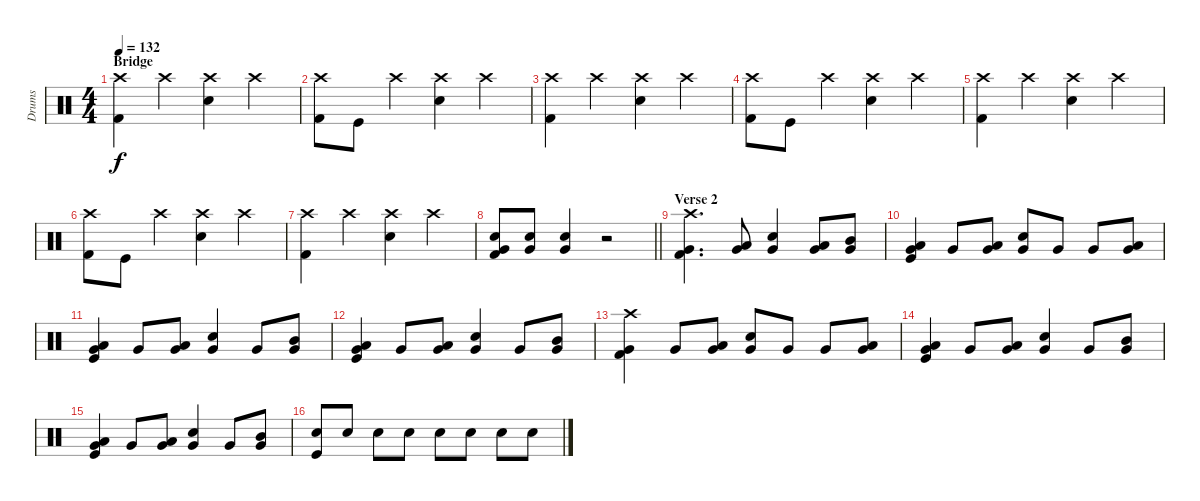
\track ("Drums" "Drums") {instrument percussion}
\staff {score}
\articulation defaults
\ts (4 4)
\section ("" "Bridge")
\tempo 132
\clef neutral
\ks c
("Crash high (hit)" "Kick (hit) 2").4{dy f} "Crash high (hit)".4 ("Crash high (hit)" "Snare (hit) 2").4 "Crash high (hit)".4 |
("Crash high (hit)" "Kick (hit) 2").8 "Kick (hit)".8 "Crash high (hit)".4 ("Crash high (hit)" "Snare (hit) 2").4 "Crash high (hit)".4 |
("Crash high (hit)" "Kick (hit) 2").4 "Crash high (hit)".4 ("Crash high (hit)" "Snare (hit) 2").4 "Crash high (hit)".4 |
("Crash high (hit)" "Kick (hit) 2").8 "Kick (hit)".8 "Crash high (hit)".4 ("Crash high (hit)" "Snare (hit) 2").4 "Crash high (hit)".4 |
("Crash high (hit)" "Kick (hit) 2").4 "Crash high (hit)".4 ("Crash high (hit)" "Snare (hit) 2").4 "Crash high (hit)".4 |
("Crash high (hit)" "Kick (hit) 2").8 "Kick (hit)".8 "Crash high (hit)".4 ("Crash high (hit)" "Snare (hit) 2").4 "Crash high (hit)".4 |
("Crash high (hit)" "Kick (hit) 2").4 "Crash high (hit)".4 ("Crash high (hit)" "Snare (hit) 2").4 "Crash high (hit)".4 |
\barLineRight lightlight
("Snare (hit) 2" "Very Low Tom (hit)" "Kick (hit) 2").8 ("Very Low Tom (hit)" "Snare (hit) 2").8 ("Very Low Tom (hit)" "Snare (hit) 2").4 r.2 |
\section ("" "Verse 2")
("Crash high (hit)" "Very Low Tom (hit)" "Kick (hit) 2").4{d} ("Very Low Tom (hit)" "Low Tom (hit)").8 ("Snare (hit) 2" "Very Low Tom (hit)").4 ("Low Tom (hit)" "Very Low Tom (hit)").8 ("Very Low Tom (hit)" "Mid Tom (hit)").8 |
("Very Low Tom (hit)" "Low Tom (hit)" "Kick (hit)").4 "Very Low Tom (hit)".8 ("Low Tom (hit)" "Very Low Tom (hit)").8 ("Snare (hit) 2" "Very Low Tom (hit)").8 "Very Low Tom (hit)".8 "Very Low Tom (hit)".8 ("Very Low Tom (hit)" "Low Tom (hit)").8 |
("Very Low Tom (hit)" "Low Tom (hit)" "Kick (hit)").4 "Very Low Tom (hit)".8 ("Low Tom (hit)" "Very Low Tom (hit)").8 ("Snare (hit) 2" "Very Low Tom (hit)").4 "Very Low Tom (hit)".8 ("Very Low Tom (hit)" "Mid Tom (hit)").8 |
("Very Low Tom (hit)" "Low Tom (hit)" "Kick (hit)").4 "Very Low Tom (hit)".8 ("Very Low Tom (hit)" "Low Tom (hit)").8 ("Snare (hit) 2" "Very Low Tom (hit)").4 "Very Low Tom (hit)".8 ("Very Low Tom (hit)" "Mid Tom (hit)").8 |
("Crash high (hit)" "Very Low Tom (hit)" "Kick (hit) 2").4 "Very Low Tom (hit)".8 ("Low Tom (hit)" "Very Low Tom (hit)").8 ("Snare (hit) 2" "Very Low Tom (hit)").8 "Very Low Tom (hit)".8 "Very Low Tom (hit)".8 ("Very Low Tom (hit)" "Low Tom (hit)").8 |
("Very Low Tom (hit)" "Low Tom (hit)" "Kick (hit)").4 "Very Low Tom (hit)".8 ("Low Tom (hit)" "Very Low Tom (hit)").8 ("Snare (hit) 2" "Very Low Tom (hit)").4 "Very Low Tom (hit)".8 ("Very Low Tom (hit)" "Mid Tom (hit)").8 |
("Very Low Tom (hit)" "Low Tom (hit)" "Kick (hit)").4 "Very Low Tom (hit)".8 ("Low Tom (hit)" "Very Low Tom (hit)").8 ("Snare (hit) 2" "Very Low Tom (hit)").4 "Very Low Tom (hit)".8 ("Very Low Tom (hit)" "Mid Tom (hit)").8 |
("Snare (hit) 2" "Kick (hit)").8{volume 10} "Snare (hit) 2".8{volume 16} "Snare (hit) 2".8 "Snare (hit) 2".8 "Snare (hit) 2".8 "Snare (hit) 2".8 "Snare (hit) 2".8 "Snare (hit) 2".8
